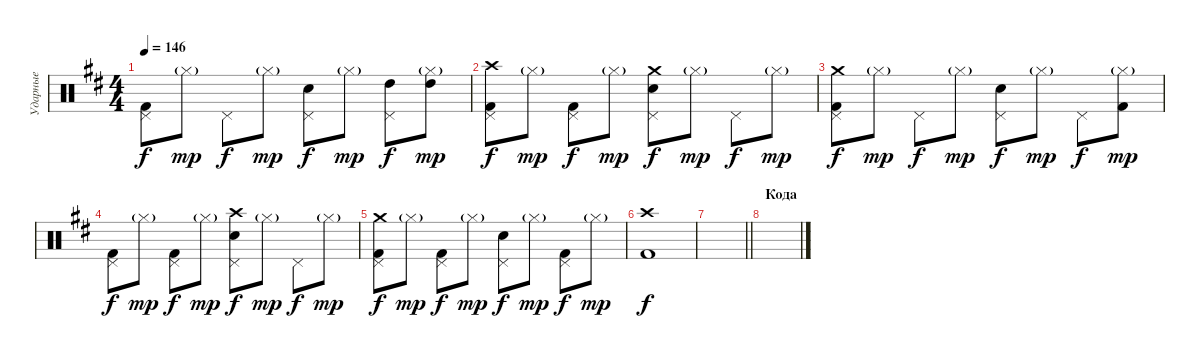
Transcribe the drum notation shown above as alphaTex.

\track ("Ударные" "Ударные") {instrument percussion}
\staff {score}
\articulation defaults
\ts (4 4)
\tempo 146
\clef neutral
\ks bminor
("Kick (hit) 2" "Pedal Hi-Hat (hit)").8{dy f} "Hi-Hat (closed)"{g}.8{dy mp} "Pedal Hi-Hat (hit)".8{dy f} "Hi-Hat (closed)"{g}.8{dy mp} ("Electric Snare (hit)" "Pedal Hi-Hat (hit)").8{dy f} "Hi-Hat (closed)"{g}.8{dy mp} ("High Tom (hit)" "Pedal Hi-Hat (hit)").8{dy f} ("High Tom (hit)" "Hi-Hat (closed)"{g}).8{dy mp} |
("Crash high (hit)" "Kick (hit) 2" "Pedal Hi-Hat (hit)").8{dy f} "Hi-Hat (closed)"{g}.8{dy mp} ("Kick (hit) 2" "Pedal Hi-Hat (hit)").8{dy f} "Hi-Hat (closed)"{g}.8{dy mp} ("Crash medium (hit)" "Electric Snare (hit)" "Pedal Hi-Hat (hit)").8{dy f} "Hi-Hat (closed)"{g}.8{dy mp} "Pedal Hi-Hat (hit)".8{dy f} "Hi-Hat (closed)"{g}.8{dy mp} |
("Crash medium (hit)" "Kick (hit) 2" "Pedal Hi-Hat (hit)").8{dy f} "Hi-Hat (closed)"{g}.8{dy mp} "Pedal Hi-Hat (hit)".8{dy f} "Hi-Hat (closed)"{g}.8{dy mp} ("Electric Snare (hit)" "Pedal Hi-Hat (hit)").8{dy f} "Hi-Hat (closed)"{g}.8{dy mp} "Pedal Hi-Hat (hit)".8{dy f} ("Kick (hit) 2" "Hi-Hat (closed)"{g}).8{dy mp} |
("Kick (hit) 2" "Pedal Hi-Hat (hit)").8{dy f} "Hi-Hat (closed)"{g}.8{dy mp} ("Kick (hit) 2" "Pedal Hi-Hat (hit)").8{dy f} "Hi-Hat (closed)"{g}.8{dy mp} ("Crash high (hit)" "Electric Snare (hit)" "Pedal Hi-Hat (hit)").8{dy f} "Hi-Hat (closed)"{g}.8{dy mp} "Pedal Hi-Hat (hit)".8{dy f} "Hi-Hat (closed)"{g}.8{dy mp} |
("Crash medium (hit)" "Kick (hit) 2" "Pedal Hi-Hat (hit)").8{dy f} "Hi-Hat (closed)"{g}.8{dy mp} ("Kick (hit) 2" "Pedal Hi-Hat (hit)").8{dy f} "Hi-Hat (closed)"{g}.8{dy mp} ("Electric Snare (hit)" "Pedal Hi-Hat (hit)").8{dy f} "Hi-Hat (closed)"{g}.8{dy mp} ("Kick (hit) 2" "Pedal Hi-Hat (hit)").8{dy f} "Hi-Hat (closed)"{g}.8{dy mp} |
("Crash high (hit)" "Kick (hit) 2").1{dy f} |
\barLineRight lightlight
|
\section ("" "Кода")
